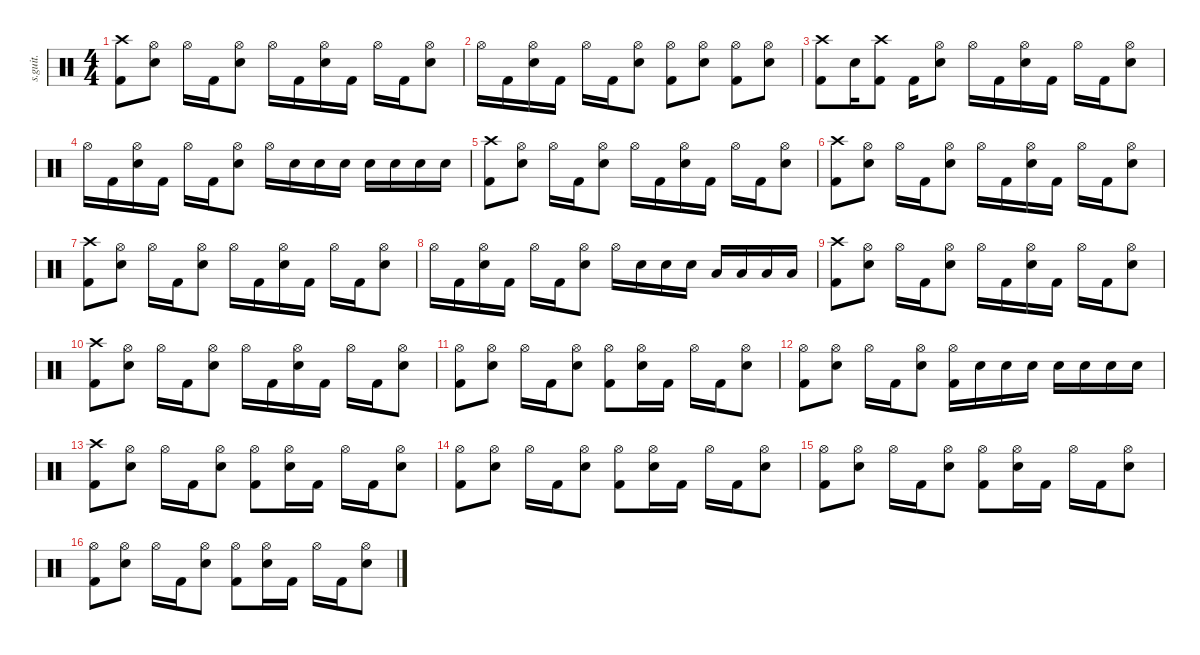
\defaultSystemsLayout 4
\hideDynamics
\bracketExtendMode nobrackets
\track ("" "s.guit.") {instrument percussion}
\staff {score}
\articulation defaults
\ts (4 4)
\tempo (150 hide)
\clef neutral
\ks c
("Crash high (hit)" "Kick (hit) 2").8{dy f} ("Hi-Hat (open)" "Snare (hit) 2").8 "Hi-Hat (open)".16 "Kick (hit) 2".16 ("Hi-Hat (open)" "Snare (hit) 2").8 "Hi-Hat (open)".16 "Kick (hit) 2".16 ("Hi-Hat (open)" "Snare (hit) 2").16 "Kick (hit) 2".16 "Hi-Hat (open)".16 "Kick (hit) 2".16 ("Hi-Hat (open)" "Snare (hit) 2").8 |
"Hi-Hat (open)".16 "Kick (hit) 2".16 ("Hi-Hat (open)" "Snare (hit) 2").16 "Kick (hit) 2".16 "Hi-Hat (open)".16 "Kick (hit) 2".16 ("Hi-Hat (open)" "Snare (hit) 2").8 ("Hi-Hat (open)" "Kick (hit) 2").8 ("Hi-Hat (open)" "Snare (hit) 2").8 ("Hi-Hat (open)" "Kick (hit) 2").8 ("Hi-Hat (open)" "Snare (hit) 2").8 |
("Crash high (hit)" "Kick (hit) 2").8 "Snare (hit) 2".16 ("Crash high (hit)" "Kick (hit) 2").8 "Kick (hit) 2".16 ("Hi-Hat (open)" "Snare (hit) 2").8 "Hi-Hat (open)".16 "Kick (hit) 2".16 ("Hi-Hat (open)" "Snare (hit) 2").16 "Kick (hit) 2".16 "Hi-Hat (open)".16 "Kick (hit) 2".16 ("Hi-Hat (open)" "Snare (hit) 2").8 |
"Hi-Hat (open)".16 "Kick (hit) 2".16 ("Hi-Hat (open)" "Snare (hit) 2").16 "Kick (hit) 2".16 "Hi-Hat (open)".16 "Kick (hit) 2".16 ("Hi-Hat (open)" "Snare (hit) 2").8 "Hi-Hat (open)".16 "Snare (hit) 2".16 "Snare (hit) 2".16 "Snare (hit) 2".16 "Snare (hit) 2".16 "Snare (hit) 2".16 "Snare (hit) 2".16 "Snare (hit) 2".16 |
("Crash high (hit)" "Kick (hit) 2").8 ("Hi-Hat (open)" "Snare (hit) 2").8 "Hi-Hat (open)".16 "Kick (hit) 2".16 ("Hi-Hat (open)" "Snare (hit) 2").8 "Hi-Hat (open)".16 "Kick (hit) 2".16 ("Hi-Hat (open)" "Snare (hit) 2").16 "Kick (hit) 2".16 "Hi-Hat (open)".16 "Kick (hit) 2".16 ("Hi-Hat (open)" "Snare (hit) 2").8 |
("Crash high (hit)" "Kick (hit) 2").8 ("Hi-Hat (open)" "Snare (hit) 2").8 "Hi-Hat (open)".16 "Kick (hit) 2".16 ("Hi-Hat (open)" "Snare (hit) 2").8 "Hi-Hat (open)".16 "Kick (hit) 2".16 ("Hi-Hat (open)" "Snare (hit) 2").16 "Kick (hit) 2".16 "Hi-Hat (open)".16 "Kick (hit) 2".16 ("Hi-Hat (open)" "Snare (hit) 2").8 |
("Crash high (hit)" "Kick (hit) 2").8 ("Hi-Hat (open)" "Snare (hit) 2").8 "Hi-Hat (open)".16 "Kick (hit) 2".16 ("Hi-Hat (open)" "Snare (hit) 2").8 "Hi-Hat (open)".16 "Kick (hit) 2".16 ("Hi-Hat (open)" "Snare (hit) 2").16 "Kick (hit) 2".16 "Hi-Hat (open)".16 "Kick (hit) 2".16 ("Hi-Hat (open)" "Snare (hit) 2").8 |
"Hi-Hat (open)".16 "Kick (hit) 2".16 ("Hi-Hat (open)" "Snare (hit) 2").16 "Kick (hit) 2".16 "Hi-Hat (open)".16 "Kick (hit) 2".16 ("Hi-Hat (open)" "Snare (hit) 2").8 "Hi-Hat (open)".16 "Snare (hit) 2".16 "Snare (hit) 2".16 "Snare (hit) 2".16 "Low Tom (hit)".16 "Low Tom (hit)".16 "Low Floor Tom (hit)".16 "Low Floor Tom (hit)".16 |
("Crash high (hit)" "Kick (hit) 2").8 ("Hi-Hat (open)" "Snare (hit) 2").8 "Hi-Hat (open)".16 "Kick (hit) 2".16 ("Hi-Hat (open)" "Snare (hit) 2").8 "Hi-Hat (open)".16 "Kick (hit) 2".16 ("Hi-Hat (open)" "Snare (hit) 2").16 "Kick (hit) 2".16 "Hi-Hat (open)".16 "Kick (hit) 2".16 ("Hi-Hat (open)" "Snare (hit) 2").8 |
("Crash high (hit)" "Kick (hit) 2").8 ("Hi-Hat (open)" "Snare (hit) 2").8 "Hi-Hat (open)".16 "Kick (hit) 2".16 ("Hi-Hat (open)" "Snare (hit) 2").8 "Hi-Hat (open)".16 "Kick (hit) 2".16 ("Hi-Hat (open)" "Snare (hit) 2").16 "Kick (hit) 2".16 "Hi-Hat (open)".16 "Kick (hit) 2".16 ("Hi-Hat (open)" "Snare (hit) 2").8 |
("Hi-Hat (open)" "Kick (hit) 2").8 ("Hi-Hat (open)" "Snare (hit) 2").8 "Hi-Hat (open)".16 "Kick (hit) 2".16 ("Hi-Hat (open)" "Snare (hit) 2").8 ("Hi-Hat (open)" "Kick (hit) 2").8 ("Hi-Hat (open)" "Snare (hit) 2").16 "Kick (hit) 2".16 "Hi-Hat (open)".16 "Kick (hit) 2".16 ("Hi-Hat (open)" "Snare (hit) 2").8 |
("Hi-Hat (open)" "Kick (hit) 2").8 ("Hi-Hat (open)" "Snare (hit) 2").8 "Hi-Hat (open)".16 "Kick (hit) 2".16 ("Hi-Hat (open)" "Snare (hit) 2").8 ("Hi-Hat (open)" "Kick (hit) 2").16 "Snare (hit) 2".16 "Snare (hit) 2".16 "Snare (hit) 2".16 "Snare (hit) 2".16 "Snare (hit) 2".16 "Snare (hit) 2".16 "Snare (hit) 2".16 |
("Crash high (hit)" "Kick (hit) 2").8 ("Hi-Hat (open)" "Snare (hit) 2").8 "Hi-Hat (open)".16 "Kick (hit) 2".16 ("Hi-Hat (open)" "Snare (hit) 2").8 ("Hi-Hat (open)" "Kick (hit) 2").8 ("Hi-Hat (open)" "Snare (hit) 2").16 "Kick (hit) 2".16 "Hi-Hat (open)".16 "Kick (hit) 2".16 ("Hi-Hat (open)" "Snare (hit) 2").8 |
("Hi-Hat (open)" "Kick (hit) 2").8 ("Hi-Hat (open)" "Snare (hit) 2").8 "Hi-Hat (open)".16 "Kick (hit) 2".16 ("Hi-Hat (open)" "Snare (hit) 2").8 ("Hi-Hat (open)" "Kick (hit) 2").8 ("Hi-Hat (open)" "Snare (hit) 2").16 "Kick (hit) 2".16 "Hi-Hat (open)".16 "Kick (hit) 2".16 ("Hi-Hat (open)" "Snare (hit) 2").8 |
("Hi-Hat (open)" "Kick (hit) 2").8 ("Hi-Hat (open)" "Snare (hit) 2").8 "Hi-Hat (open)".16 "Kick (hit) 2".16 ("Hi-Hat (open)" "Snare (hit) 2").8 ("Hi-Hat (open)" "Kick (hit) 2").8 ("Hi-Hat (open)" "Snare (hit) 2").16 "Kick (hit) 2".16 "Hi-Hat (open)".16 "Kick (hit) 2".16 ("Hi-Hat (open)" "Snare (hit) 2").8 |
("Hi-Hat (open)" "Kick (hit) 2").8 ("Hi-Hat (open)" "Snare (hit) 2").8 "Hi-Hat (open)".16 "Kick (hit) 2".16 ("Hi-Hat (open)" "Snare (hit) 2").8 ("Hi-Hat (open)" "Kick (hit) 2").8 ("Hi-Hat (open)" "Snare (hit) 2").16 "Kick (hit) 2".16 "Hi-Hat (open)".16 "Kick (hit) 2".16 ("Hi-Hat (open)" "Snare (hit) 2").8
